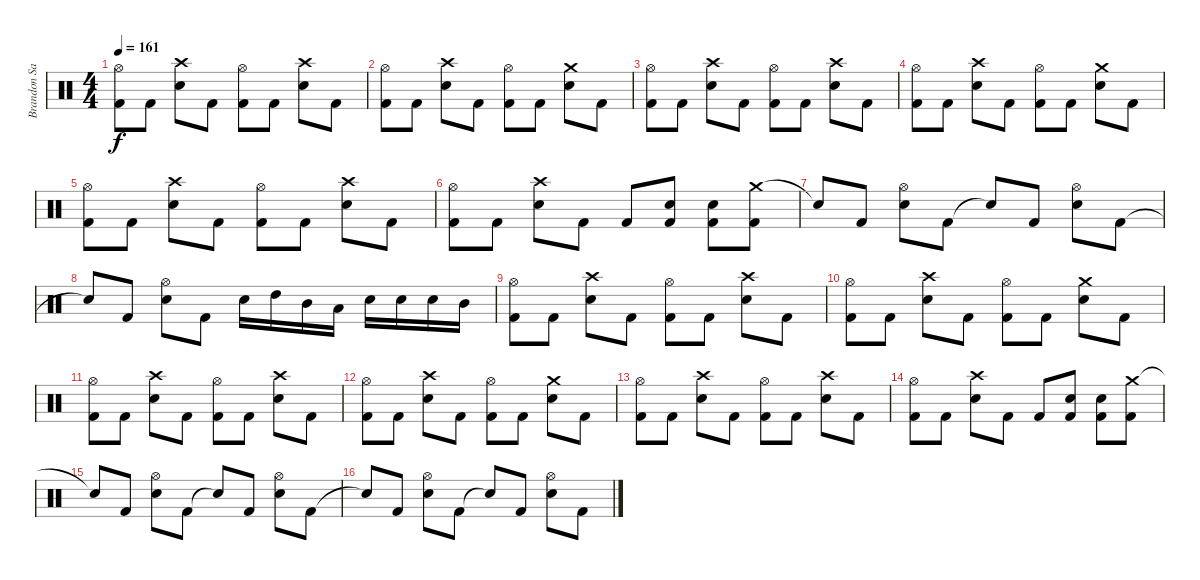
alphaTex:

\track ("Brandon Saller" "Brandon Sa") {instrument percussion}
\staff {score}
\articulation defaults
\ts (4 4)
\tempo 161
\clef neutral
\ks c
("Hi-Hat (open)" "Kick (hit) 2").8{dy f} "Kick (hit) 2".8 ("Crash high (hit)" "Electric Snare (hit)").8 "Kick (hit) 2".8 ("Hi-Hat (open)" "Kick (hit) 2").8 "Kick (hit) 2".8 ("Crash high (hit)" "Electric Snare (hit)").8 "Kick (hit) 2".8 |
("Hi-Hat (open)" "Kick (hit) 2").8 "Kick (hit) 2".8 ("Crash high (hit)" "Electric Snare (hit)").8 "Kick (hit) 2".8 ("Hi-Hat (open)" "Kick (hit) 2").8 "Kick (hit) 2".8 ("Crash medium (hit)" "Electric Snare (hit)").8 "Kick (hit) 2".8 |
("Hi-Hat (open)" "Kick (hit) 2").8 "Kick (hit) 2".8 ("Crash high (hit)" "Electric Snare (hit)").8 "Kick (hit) 2".8 ("Hi-Hat (open)" "Kick (hit) 2").8 "Kick (hit) 2".8 ("Crash high (hit)" "Electric Snare (hit)").8 "Kick (hit) 2".8 |
("Hi-Hat (open)" "Kick (hit) 2").8 "Kick (hit) 2".8 ("Crash high (hit)" "Electric Snare (hit)").8 "Kick (hit) 2".8 ("Hi-Hat (open)" "Kick (hit) 2").8 "Kick (hit) 2".8 ("Crash medium (hit)" "Electric Snare (hit)").8 "Kick (hit) 2".8 |
("Hi-Hat (open)" "Kick (hit) 2").8 "Kick (hit) 2".8 ("Crash high (hit)" "Electric Snare (hit)").8 "Kick (hit) 2".8 ("Hi-Hat (open)" "Kick (hit) 2").8 "Kick (hit) 2".8 ("Crash high (hit)" "Electric Snare (hit)").8 "Kick (hit) 2".8 |
("Hi-Hat (open)" "Kick (hit) 2").8 "Kick (hit) 2".8 ("Crash high (hit)" "Electric Snare (hit)").8 "Kick (hit) 2".8 "Kick (hit) 2".8 ("Snare (hit) 2" "Kick (hit) 2").8 ("Snare (hit) 2" "Kick (hit) 2").8 ("Crash medium (hit)" "Kick (hit) 2").8 |
"Snare (hit)"{t}.8 "Kick (hit) 2".8 ("Hi-Hat (open)" "Electric Snare (hit)").8 "Kick (hit) 2".8 "Snare (hit)"{t}.8 "Kick (hit) 2".8 ("Hi-Hat (open)" "Electric Snare (hit)").8 "Kick (hit) 2".8 |
"Snare (hit)"{t}.8 "Kick (hit) 2".8 ("Hi-Hat (open)" "Electric Snare (hit)").8 "Kick (hit) 2".8 "Electric Snare (hit)".16 "High Tom (hit)".16 "Mid Tom (hit)".16 "Low Tom (hit)".16 "Snare (hit) 2".16 "Electric Snare (hit)".16 "Electric Snare (hit)".16 "Mid Tom (hit)".16 |
("Hi-Hat (open)" "Kick (hit) 2").8 "Kick (hit) 2".8 ("Crash high (hit)" "Electric Snare (hit)").8 "Kick (hit) 2".8 ("Hi-Hat (open)" "Kick (hit) 2").8 "Kick (hit) 2".8 ("Crash high (hit)" "Electric Snare (hit)").8 "Kick (hit) 2".8 |
("Hi-Hat (open)" "Kick (hit) 2").8 "Kick (hit) 2".8 ("Crash high (hit)" "Electric Snare (hit)").8 "Kick (hit) 2".8 ("Hi-Hat (open)" "Kick (hit) 2").8 "Kick (hit) 2".8 ("Crash medium (hit)" "Electric Snare (hit)").8 "Kick (hit) 2".8 |
("Hi-Hat (open)" "Kick (hit) 2").8 "Kick (hit) 2".8 ("Crash high (hit)" "Electric Snare (hit)").8 "Kick (hit) 2".8 ("Hi-Hat (open)" "Kick (hit) 2").8 "Kick (hit) 2".8 ("Crash high (hit)" "Electric Snare (hit)").8 "Kick (hit) 2".8 |
("Hi-Hat (open)" "Kick (hit) 2").8 "Kick (hit) 2".8 ("Crash high (hit)" "Electric Snare (hit)").8 "Kick (hit) 2".8 ("Hi-Hat (open)" "Kick (hit) 2").8 "Kick (hit) 2".8 ("Crash medium (hit)" "Electric Snare (hit)").8 "Kick (hit) 2".8 |
("Hi-Hat (open)" "Kick (hit) 2").8 "Kick (hit) 2".8 ("Crash high (hit)" "Electric Snare (hit)").8 "Kick (hit) 2".8 ("Hi-Hat (open)" "Kick (hit) 2").8 "Kick (hit) 2".8 ("Crash high (hit)" "Electric Snare (hit)").8 "Kick (hit) 2".8 |
("Hi-Hat (open)" "Kick (hit) 2").8 "Kick (hit) 2".8 ("Crash high (hit)" "Electric Snare (hit)").8 "Kick (hit) 2".8 "Kick (hit) 2".8 ("Snare (hit) 2" "Kick (hit) 2").8 ("Snare (hit) 2" "Kick (hit) 2").8 ("Crash medium (hit)" "Kick (hit) 2").8 |
"Snare (hit)"{t}.8 "Kick (hit) 2".8 ("Hi-Hat (open)" "Electric Snare (hit)").8 "Kick (hit) 2".8 "Snare (hit)"{t}.8 "Kick (hit) 2".8 ("Hi-Hat (open)" "Electric Snare (hit)").8 "Kick (hit) 2".8 |
"Snare (hit)"{t}.8 "Kick (hit) 2".8 ("Hi-Hat (open)" "Electric Snare (hit)").8 "Kick (hit) 2".8 "Snare (hit)"{t}.8 "Kick (hit) 2".8 ("Hi-Hat (open)" "Electric Snare (hit)").8 "Kick (hit) 2".8
